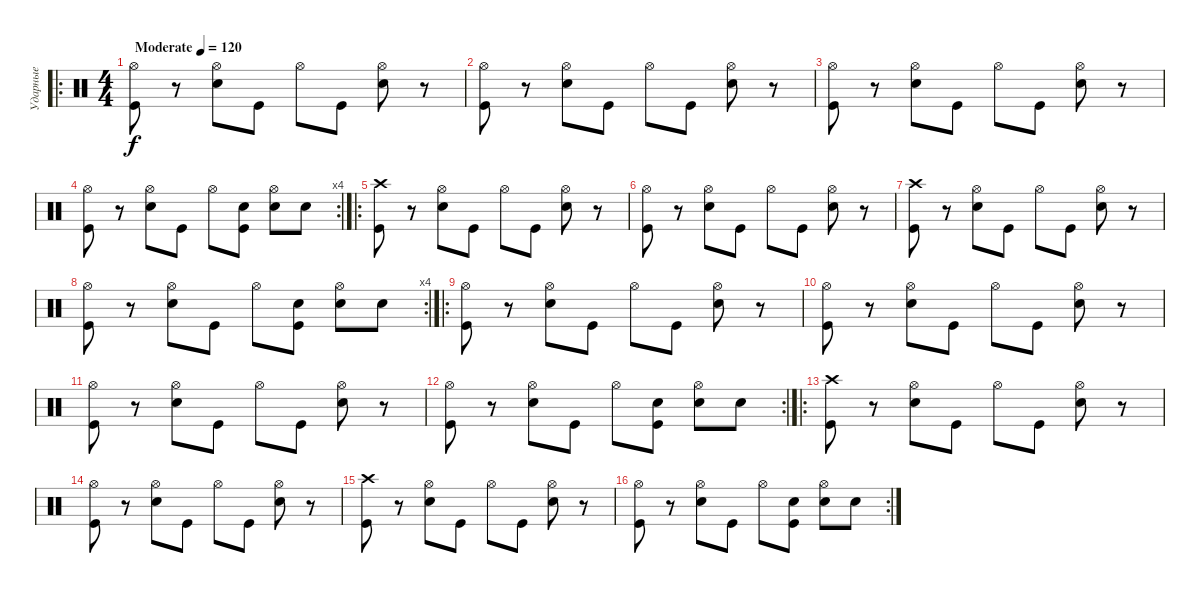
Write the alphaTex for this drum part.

\track ("Ударные" "Ударные") {instrument percussion}
\staff {score}
\articulation defaults
\ro
\ts (4 4)
\tempo (120 "Moderate")
\clef neutral
\ks c
("Kick (hit)" "Hi-Hat (open)").8{dy f} r.8 ("Snare (hit) 2" "Hi-Hat (open)").8 "Kick (hit)".8 "Hi-Hat (open)".8 "Kick (hit)".8 ("Snare (hit) 2" "Hi-Hat (open)").8 r.8 |
("Kick (hit)" "Hi-Hat (open)").8 r.8 ("Snare (hit) 2" "Hi-Hat (open)").8 "Kick (hit)".8 "Hi-Hat (open)".8 "Kick (hit)".8 ("Snare (hit) 2" "Hi-Hat (open)").8 r.8 |
("Kick (hit)" "Hi-Hat (open)").8 r.8 ("Snare (hit) 2" "Hi-Hat (open)").8 "Kick (hit)".8 "Hi-Hat (open)".8 "Kick (hit)".8 ("Snare (hit) 2" "Hi-Hat (open)").8 r.8 |
\rc 4
("Kick (hit)" "Hi-Hat (open)").8 r.8 ("Snare (hit) 2" "Hi-Hat (open)").8 "Kick (hit)".8 "Hi-Hat (open)".8 ("Kick (hit)" "Snare (hit) 2").8 ("Snare (hit) 2" "Hi-Hat (open)").8 "Snare (hit) 2".8 |
\ro
("Kick (hit)" "Crash high (hit)").8 r.8 ("Snare (hit) 2" "Hi-Hat (open)").8 "Kick (hit)".8 "Hi-Hat (open)".8 "Kick (hit)".8 ("Snare (hit) 2" "Hi-Hat (open)").8 r.8 |
("Kick (hit)" "Hi-Hat (open)").8 r.8 ("Snare (hit) 2" "Hi-Hat (open)").8 "Kick (hit)".8 "Hi-Hat (open)".8 "Kick (hit)".8 ("Snare (hit) 2" "Hi-Hat (open)").8 r.8 |
("Kick (hit)" "Crash high (hit)").8 r.8 ("Snare (hit) 2" "Hi-Hat (open)").8 "Kick (hit)".8 "Hi-Hat (open)".8 "Kick (hit)".8 ("Snare (hit) 2" "Hi-Hat (open)").8 r.8 |
\rc 4
("Kick (hit)" "Hi-Hat (open)").8 r.8 ("Snare (hit) 2" "Hi-Hat (open)").8 "Kick (hit)".8 "Hi-Hat (open)".8 ("Kick (hit)" "Snare (hit) 2").8 ("Snare (hit) 2" "Hi-Hat (open)").8 "Snare (hit) 2".8 |
\ro
("Kick (hit)" "Hi-Hat (open)").8 r.8 ("Snare (hit) 2" "Hi-Hat (open)").8 "Kick (hit)".8 "Hi-Hat (open)".8 "Kick (hit)".8 ("Snare (hit) 2" "Hi-Hat (open)").8 r.8 |
("Kick (hit)" "Hi-Hat (open)").8 r.8 ("Snare (hit) 2" "Hi-Hat (open)").8 "Kick (hit)".8 "Hi-Hat (open)".8 "Kick (hit)".8 ("Snare (hit) 2" "Hi-Hat (open)").8 r.8 |
("Kick (hit)" "Hi-Hat (open)").8 r.8 ("Snare (hit) 2" "Hi-Hat (open)").8 "Kick (hit)".8 "Hi-Hat (open)".8 "Kick (hit)".8 ("Snare (hit) 2" "Hi-Hat (open)").8 r.8 |
\rc 2
("Kick (hit)" "Hi-Hat (open)").8 r.8 ("Snare (hit) 2" "Hi-Hat (open)").8 "Kick (hit)".8 "Hi-Hat (open)".8 ("Kick (hit)" "Snare (hit) 2").8 ("Snare (hit) 2" "Hi-Hat (open)").8 "Snare (hit) 2".8 |
\ro
("Kick (hit)" "Crash high (hit)").8 r.8 ("Snare (hit) 2" "Hi-Hat (open)").8 "Kick (hit)".8 "Hi-Hat (open)".8 "Kick (hit)".8 ("Snare (hit) 2" "Hi-Hat (open)").8 r.8 |
("Kick (hit)" "Hi-Hat (open)").8 r.8 ("Snare (hit) 2" "Hi-Hat (open)").8 "Kick (hit)".8 "Hi-Hat (open)".8 "Kick (hit)".8 ("Snare (hit) 2" "Hi-Hat (open)").8 r.8 |
("Kick (hit)" "Crash high (hit)").8 r.8 ("Snare (hit) 2" "Hi-Hat (open)").8 "Kick (hit)".8 "Hi-Hat (open)".8 "Kick (hit)".8 ("Snare (hit) 2" "Hi-Hat (open)").8 r.8 |
\rc 2
("Kick (hit)" "Hi-Hat (open)").8 r.8 ("Snare (hit) 2" "Hi-Hat (open)").8 "Kick (hit)".8 "Hi-Hat (open)".8 ("Kick (hit)" "Snare (hit) 2").8 ("Snare (hit) 2" "Hi-Hat (open)").8 "Snare (hit) 2".8
